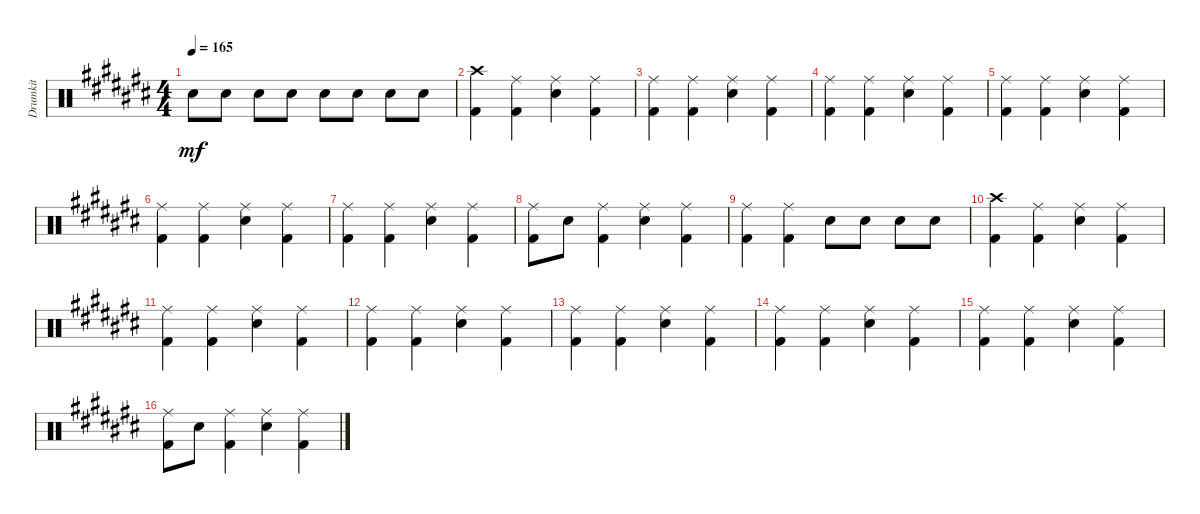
\track ("Drumkit" "Drumkit") {instrument percussion}
\staff {score}
\articulation defaults
\ts (4 4)
\tempo 165
\clef neutral
\ks c# "Snare (hit) 2".8{dy mf} "Snare (hit) 2".8 "Snare (hit) 2".8 "Snare (hit) 2".8 "Snare (hit) 2".8 "Snare (hit) 2".8 "Snare (hit) 2".8 "Snare (hit) 2".8
|
("Kick (hit) 2" "Crash high (hit)").4 ("Kick (hit) 2" "Ride (middle)").4 ("Snare (hit) 2" "Ride (middle)").4 ("Kick (hit) 2" "Ride (middle)").4 |
("Kick (hit) 2" "Ride (middle)").4 ("Kick (hit) 2" "Ride (middle)").4 ("Snare (hit) 2" "Ride (middle)").4 ("Kick (hit) 2" "Ride (middle)").4 |
("Kick (hit) 2" "Ride (middle)").4 ("Kick (hit) 2" "Ride (middle)").4 ("Snare (hit) 2" "Ride (middle)").4 ("Kick (hit) 2" "Ride (middle)").4 |
("Kick (hit) 2" "Ride (middle)").4 ("Kick (hit) 2" "Ride (middle)").4 ("Snare (hit) 2" "Ride (middle)").4 ("Kick (hit) 2" "Ride (middle)").4 |
("Kick (hit) 2" "Ride (middle)").4 ("Kick (hit) 2" "Ride (middle)").4 ("Snare (hit) 2" "Ride (middle)").4 ("Kick (hit) 2" "Ride (middle)").4 |
("Kick (hit) 2" "Ride (middle)").4 ("Kick (hit) 2" "Ride (middle)").4 ("Snare (hit) 2" "Ride (middle)").4 ("Kick (hit) 2" "Ride (middle)").4 |
("Kick (hit) 2" "Ride (middle)").8 "Snare (hit) 2".8 ("Kick (hit) 2" "Ride (middle)").4 ("Snare (hit) 2" "Ride (middle)").4 ("Kick (hit) 2" "Ride (middle)").4 |
("Kick (hit) 2" "Ride (middle)").4 ("Kick (hit) 2" "Ride (middle)").4 "Snare (hit) 2".8 "Snare (hit) 2".8 "Snare (hit) 2".8 "Snare (hit) 2".8 |
("Kick (hit) 2" "Crash high (hit)").4 ("Kick (hit) 2" "Ride (middle)").4 ("Snare (hit) 2" "Ride (middle)").4 ("Kick (hit) 2" "Ride (middle)").4 |
("Kick (hit) 2" "Ride (middle)").4 ("Kick (hit) 2" "Ride (middle)").4 ("Snare (hit) 2" "Ride (middle)").4 ("Kick (hit) 2" "Ride (middle)").4 |
("Kick (hit) 2" "Ride (middle)").4 ("Kick (hit) 2" "Ride (middle)").4 ("Snare (hit) 2" "Ride (middle)").4 ("Kick (hit) 2" "Ride (middle)").4 |
("Kick (hit) 2" "Ride (middle)").4 ("Kick (hit) 2" "Ride (middle)").4 ("Snare (hit) 2" "Ride (middle)").4 ("Kick (hit) 2" "Ride (middle)").4 |
("Kick (hit) 2" "Ride (middle)").4 ("Kick (hit) 2" "Ride (middle)").4 ("Snare (hit) 2" "Ride (middle)").4 ("Kick (hit) 2" "Ride (middle)").4 |
("Kick (hit) 2" "Ride (middle)").4 ("Kick (hit) 2" "Ride (middle)").4 ("Snare (hit) 2" "Ride (middle)").4 ("Kick (hit) 2" "Ride (middle)").4 |
("Kick (hit) 2" "Ride (middle)").8 "Snare (hit) 2".8 ("Kick (hit) 2" "Ride (middle)").4 ("Snare (hit) 2" "Ride (middle)").4 ("Kick (hit) 2" "Ride (middle)").4
